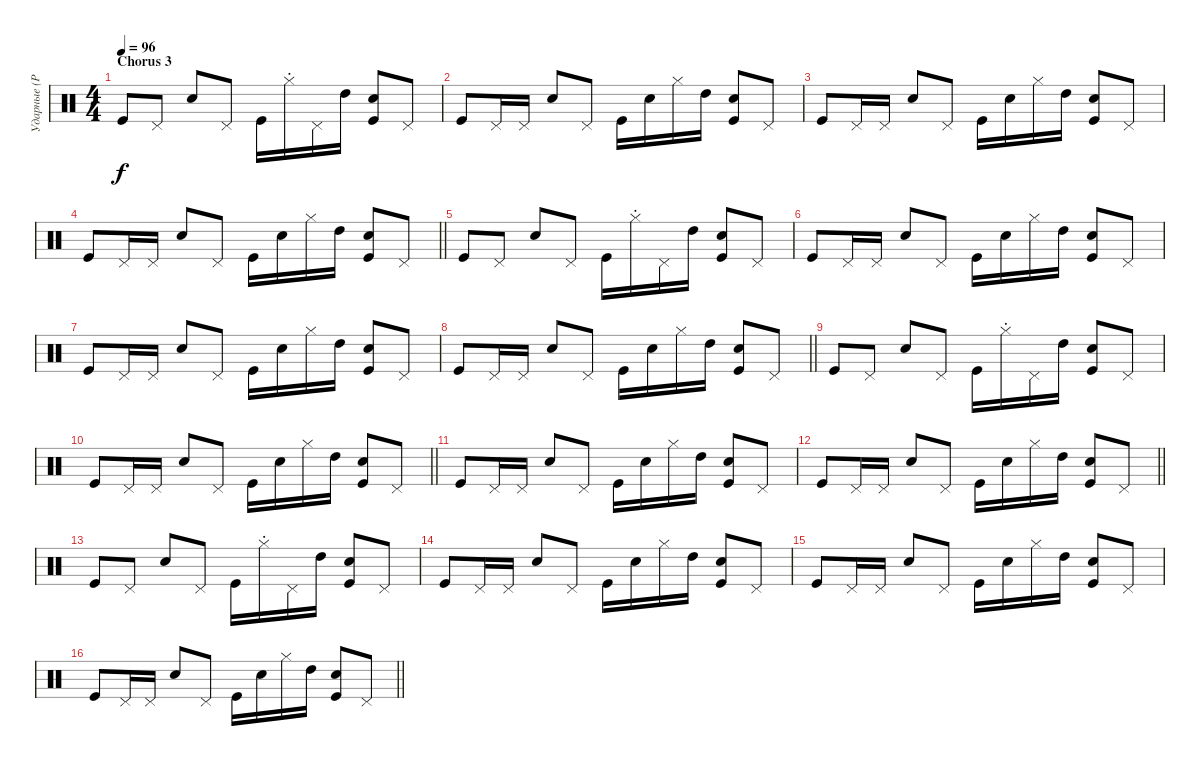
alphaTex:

\track ("Ударные (Phil Collins)" "Ударные (P") {instrument percussion}
\staff {score}
\articulation defaults
\ts (4 4)
\section ("" "Chorus 3")
\tempo 96
\clef neutral
\ks c "Kick (hit)".8{dy f} "Pedal Hi-Hat (hit)".8 "Electric Snare (hit)".8 "Pedal Hi-Hat (hit)".8 "Kick (hit)".16 "Hi-Hat (closed)"{st}.16 "Pedal Hi-Hat (hit)".16 "High Tom (hit)".16
("Electric Snare (hit)" "Kick (hit)").8 "Pedal Hi-Hat (hit)".8 |
"Kick (hit)".8 "Pedal Hi-Hat (hit)".16 "Pedal Hi-Hat (hit)".16 "Electric Snare (hit)".8 "Pedal Hi-Hat (hit)".8 "Kick (hit)".16 "Electric Snare (hit)".16 "Hi-Hat (closed)".16 "High Tom (hit)".16 ("Electric Snare (hit)" "Kick (hit)").8 "Pedal Hi-Hat (hit)".8 |
"Kick (hit)".8 "Pedal Hi-Hat (hit)".16 "Pedal Hi-Hat (hit)".16 "Electric Snare (hit)".8 "Pedal Hi-Hat (hit)".8 "Kick (hit)".16 "Electric Snare (hit)".16 "Hi-Hat (closed)".16 "High Tom (hit)".16 ("Electric Snare (hit)" "Kick (hit)").8 "Pedal Hi-Hat (hit)".8 |
\barLineRight lightlight "Kick (hit)".8 "Pedal Hi-Hat (hit)".16 "Pedal Hi-Hat (hit)".16 "Electric Snare (hit)".8 "Pedal Hi-Hat (hit)".8 "Kick (hit)".16 "Electric Snare (hit)".16 "Hi-Hat (closed)".16 "High Tom (hit)".16
("Electric Snare (hit)" "Kick (hit)").8 "Pedal Hi-Hat (hit)".8 |
"Kick (hit)".8 "Pedal Hi-Hat (hit)".8 "Electric Snare (hit)".8 "Pedal Hi-Hat (hit)".8 "Kick (hit)".16 "Hi-Hat (closed)"{st}.16 "Pedal Hi-Hat (hit)".16 "High Tom (hit)".16 ("Electric Snare (hit)" "Kick (hit)").8 "Pedal Hi-Hat (hit)".8 |
"Kick (hit)".8 "Pedal Hi-Hat (hit)".16 "Pedal Hi-Hat (hit)".16 "Electric Snare (hit)".8 "Pedal Hi-Hat (hit)".8 "Kick (hit)".16 "Electric Snare (hit)".16 "Hi-Hat (closed)".16 "High Tom (hit)".16 ("Electric Snare (hit)" "Kick (hit)").8 "Pedal Hi-Hat (hit)".8 |
"Kick (hit)".8 "Pedal Hi-Hat (hit)".16 "Pedal Hi-Hat (hit)".16 "Electric Snare (hit)".8 "Pedal Hi-Hat (hit)".8 "Kick (hit)".16 "Electric Snare (hit)".16 "Hi-Hat (closed)".16 "High Tom (hit)".16 ("Electric Snare (hit)" "Kick (hit)").8 "Pedal Hi-Hat (hit)".8 |
\barLineRight lightlight "Kick (hit)".8 "Pedal Hi-Hat (hit)".16 "Pedal Hi-Hat (hit)".16 "Electric Snare (hit)".8 "Pedal Hi-Hat (hit)".8 "Kick (hit)".16 "Electric Snare (hit)".16 "Hi-Hat (closed)".16 "High Tom (hit)".16
("Electric Snare (hit)" "Kick (hit)").8 "Pedal Hi-Hat (hit)".8 |
"Kick (hit)".8 "Pedal Hi-Hat (hit)".8 "Electric Snare (hit)".8 "Pedal Hi-Hat (hit)".8 "Kick (hit)".16 "Hi-Hat (closed)"{st}.16 "Pedal Hi-Hat (hit)".16 "High Tom (hit)".16 ("Electric Snare (hit)" "Kick (hit)").8 "Pedal Hi-Hat (hit)".8 |
\barLineRight lightlight "Kick (hit)".8 "Pedal Hi-Hat (hit)".16 "Pedal Hi-Hat (hit)".16 "Electric Snare (hit)".8 "Pedal Hi-Hat (hit)".8 "Kick (hit)".16 "Electric Snare (hit)".16 "Hi-Hat (closed)".16 "High Tom (hit)".16
("Electric Snare (hit)" "Kick (hit)").8 "Pedal Hi-Hat (hit)".8 |
"Kick (hit)".8 "Pedal Hi-Hat (hit)".16 "Pedal Hi-Hat (hit)".16 "Electric Snare (hit)".8 "Pedal Hi-Hat (hit)".8 "Kick (hit)".16 "Electric Snare (hit)".16 "Hi-Hat (closed)".16 "High Tom (hit)".16 ("Electric Snare (hit)" "Kick (hit)").8 "Pedal Hi-Hat (hit)".8 |
\barLineRight lightlight "Kick (hit)".8 "Pedal Hi-Hat (hit)".16 "Pedal Hi-Hat (hit)".16 "Electric Snare (hit)".8 "Pedal Hi-Hat (hit)".8 "Kick (hit)".16 "Electric Snare (hit)".16 "Hi-Hat (closed)".16 "High Tom (hit)".16
("Electric Snare (hit)" "Kick (hit)").8 "Pedal Hi-Hat (hit)".8 |
"Kick (hit)".8 "Pedal Hi-Hat (hit)".8 "Electric Snare (hit)".8 "Pedal Hi-Hat (hit)".8 "Kick (hit)".16 "Hi-Hat (closed)"{st}.16 "Pedal Hi-Hat (hit)".16 "High Tom (hit)".16 ("Electric Snare (hit)" "Kick (hit)").8 "Pedal Hi-Hat (hit)".8 |
"Kick (hit)".8 "Pedal Hi-Hat (hit)".16 "Pedal Hi-Hat (hit)".16 "Electric Snare (hit)".8 "Pedal Hi-Hat (hit)".8 "Kick (hit)".16 "Electric Snare (hit)".16 "Hi-Hat (closed)".16 "High Tom (hit)".16 ("Electric Snare (hit)" "Kick (hit)").8 "Pedal Hi-Hat (hit)".8 |
"Kick (hit)".8 "Pedal Hi-Hat (hit)".16 "Pedal Hi-Hat (hit)".16 "Electric Snare (hit)".8 "Pedal Hi-Hat (hit)".8 "Kick (hit)".16 "Electric Snare (hit)".16 "Hi-Hat (closed)".16 "High Tom (hit)".16 ("Electric Snare (hit)" "Kick (hit)").8 "Pedal Hi-Hat (hit)".8 |
\barLineRight lightlight "Kick (hit)".8 "Pedal Hi-Hat (hit)".16 "Pedal Hi-Hat (hit)".16 "Electric Snare (hit)".8 "Pedal Hi-Hat (hit)".8 "Kick (hit)".16 "Electric Snare (hit)".16 "Hi-Hat (closed)".16 "High Tom (hit)".16
("Electric Snare (hit)" "Kick (hit)").8 "Pedal Hi-Hat (hit)".8
